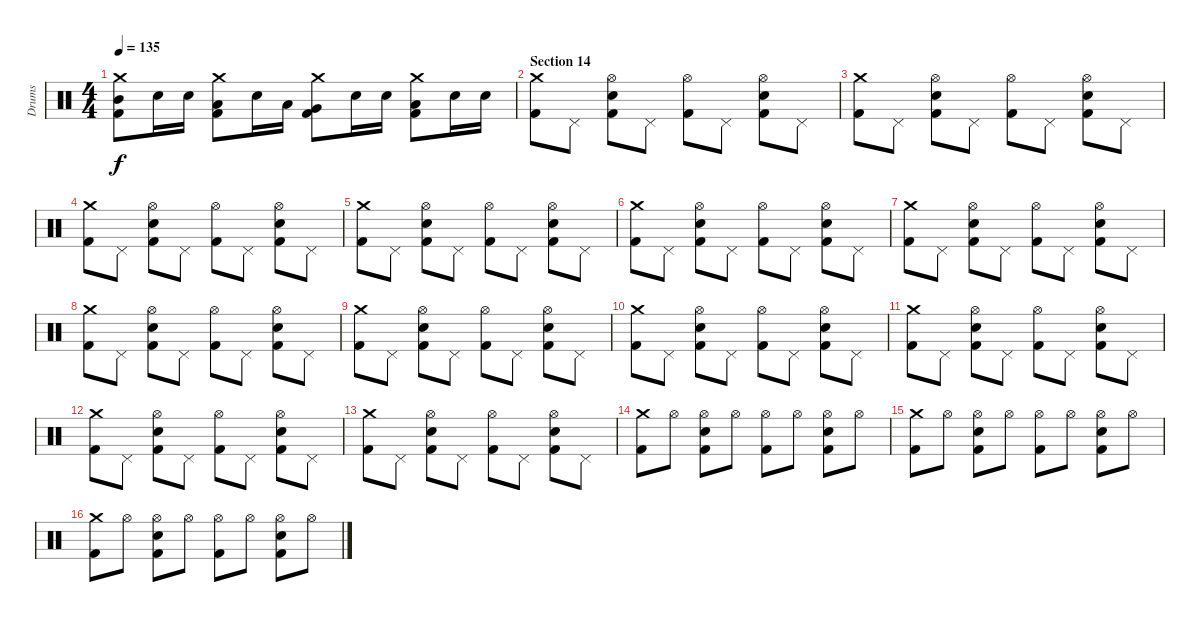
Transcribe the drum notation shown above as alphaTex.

\track ("Drums" "Drums") {instrument percussion}
\staff {score}
\articulation defaults
\ts (4 4)
\tempo 135
\clef neutral
\ks c
("Crash medium (hit)" "Kick (hit) 2" "Mid Tom (hit)").8{dy f} "Electric Snare (hit)".16 "Electric Snare (hit)".16 ("Crash medium (hit)" "Kick (hit) 2" "Low Tom (hit)").8 "Electric Snare (hit)".16 "Low Tom (hit)".16 ("Crash medium (hit)" "Kick (hit) 2" "Very Low Tom (hit)").8 "Electric Snare (hit)".16 "Electric Snare (hit)".16 ("Crash medium (hit)" "Kick (hit) 2" "Low Tom (hit)").8 "Electric Snare (hit)".16 "Electric Snare (hit)".16 |
\section ("" "Section 14")
("Crash medium (hit)" "Kick (hit) 2").8 "Pedal Hi-Hat (hit)".8 ("Hi-Hat (open)" "Electric Snare (hit)" "Kick (hit) 2").8 "Pedal Hi-Hat (hit)".8 ("Hi-Hat (open)" "Kick (hit) 2").8 "Pedal Hi-Hat (hit)".8 ("Hi-Hat (open)" "Electric Snare (hit)" "Kick (hit) 2").8 "Pedal Hi-Hat (hit)".8 |
("Crash medium (hit)" "Kick (hit) 2").8 "Pedal Hi-Hat (hit)".8 ("Hi-Hat (open)" "Electric Snare (hit)" "Kick (hit) 2").8 "Pedal Hi-Hat (hit)".8 ("Hi-Hat (open)" "Kick (hit) 2").8 "Pedal Hi-Hat (hit)".8 ("Hi-Hat (open)" "Electric Snare (hit)" "Kick (hit) 2").8 "Pedal Hi-Hat (hit)".8 |
("Crash medium (hit)" "Kick (hit) 2").8 "Pedal Hi-Hat (hit)".8 ("Hi-Hat (open)" "Electric Snare (hit)" "Kick (hit) 2").8 "Pedal Hi-Hat (hit)".8 ("Hi-Hat (open)" "Kick (hit) 2").8 "Pedal Hi-Hat (hit)".8 ("Hi-Hat (open)" "Electric Snare (hit)" "Kick (hit) 2").8 "Pedal Hi-Hat (hit)".8 |
("Crash medium (hit)" "Kick (hit) 2").8 "Pedal Hi-Hat (hit)".8 ("Hi-Hat (open)" "Electric Snare (hit)" "Kick (hit) 2").8 "Pedal Hi-Hat (hit)".8 ("Hi-Hat (open)" "Kick (hit) 2").8 "Pedal Hi-Hat (hit)".8 ("Hi-Hat (open)" "Electric Snare (hit)" "Kick (hit) 2").8 "Pedal Hi-Hat (hit)".8 |
("Crash medium (hit)" "Kick (hit) 2").8 "Pedal Hi-Hat (hit)".8 ("Hi-Hat (open)" "Electric Snare (hit)" "Kick (hit) 2").8 "Pedal Hi-Hat (hit)".8 ("Hi-Hat (open)" "Kick (hit) 2").8 "Pedal Hi-Hat (hit)".8 ("Hi-Hat (open)" "Electric Snare (hit)" "Kick (hit) 2").8 "Pedal Hi-Hat (hit)".8 |
("Crash medium (hit)" "Kick (hit) 2").8 "Pedal Hi-Hat (hit)".8 ("Hi-Hat (open)" "Electric Snare (hit)" "Kick (hit) 2").8 "Pedal Hi-Hat (hit)".8 ("Hi-Hat (open)" "Kick (hit) 2").8 "Pedal Hi-Hat (hit)".8 ("Hi-Hat (open)" "Electric Snare (hit)" "Kick (hit) 2").8 "Pedal Hi-Hat (hit)".8 |
("Crash medium (hit)" "Kick (hit) 2").8 "Pedal Hi-Hat (hit)".8 ("Hi-Hat (open)" "Electric Snare (hit)" "Kick (hit) 2").8 "Pedal Hi-Hat (hit)".8 ("Hi-Hat (open)" "Kick (hit) 2").8 "Pedal Hi-Hat (hit)".8 ("Hi-Hat (open)" "Electric Snare (hit)" "Kick (hit) 2").8 "Pedal Hi-Hat (hit)".8 |
("Crash medium (hit)" "Kick (hit) 2").8 "Pedal Hi-Hat (hit)".8 ("Hi-Hat (open)" "Electric Snare (hit)" "Kick (hit) 2").8 "Pedal Hi-Hat (hit)".8 ("Hi-Hat (open)" "Kick (hit) 2").8 "Pedal Hi-Hat (hit)".8 ("Hi-Hat (open)" "Electric Snare (hit)" "Kick (hit) 2").8 "Pedal Hi-Hat (hit)".8 |
("Crash medium (hit)" "Kick (hit) 2").8 "Pedal Hi-Hat (hit)".8 ("Hi-Hat (open)" "Electric Snare (hit)" "Kick (hit) 2").8 "Pedal Hi-Hat (hit)".8 ("Hi-Hat (open)" "Kick (hit) 2").8 "Pedal Hi-Hat (hit)".8 ("Hi-Hat (open)" "Electric Snare (hit)" "Kick (hit) 2").8 "Pedal Hi-Hat (hit)".8 |
("Crash medium (hit)" "Kick (hit) 2").8 "Pedal Hi-Hat (hit)".8 ("Hi-Hat (open)" "Electric Snare (hit)" "Kick (hit) 2").8 "Pedal Hi-Hat (hit)".8 ("Hi-Hat (open)" "Kick (hit) 2").8 "Pedal Hi-Hat (hit)".8 ("Hi-Hat (open)" "Electric Snare (hit)" "Kick (hit) 2").8 "Pedal Hi-Hat (hit)".8 |
("Crash medium (hit)" "Kick (hit) 2").8 "Pedal Hi-Hat (hit)".8 ("Hi-Hat (open)" "Electric Snare (hit)" "Kick (hit) 2").8 "Pedal Hi-Hat (hit)".8 ("Hi-Hat (open)" "Kick (hit) 2").8 "Pedal Hi-Hat (hit)".8 ("Hi-Hat (open)" "Electric Snare (hit)" "Kick (hit) 2").8 "Pedal Hi-Hat (hit)".8 |
("Crash medium (hit)" "Kick (hit) 2").8 "Pedal Hi-Hat (hit)".8 ("Hi-Hat (open)" "Electric Snare (hit)" "Kick (hit) 2").8 "Pedal Hi-Hat (hit)".8 ("Hi-Hat (open)" "Kick (hit) 2").8 "Pedal Hi-Hat (hit)".8 ("Hi-Hat (open)" "Electric Snare (hit)" "Kick (hit) 2").8 "Pedal Hi-Hat (hit)".8 |
("Crash medium (hit)" "Kick (hit) 2").8 "Hi-Hat (open)".8 ("Hi-Hat (open)" "Electric Snare (hit)" "Kick (hit) 2").8 "Hi-Hat (open)".8 ("Hi-Hat (open)" "Kick (hit) 2").8 "Hi-Hat (open)".8 ("Hi-Hat (open)" "Electric Snare (hit)" "Kick (hit) 2").8 "Hi-Hat (open)".8 |
("Crash medium (hit)" "Kick (hit) 2").8 "Hi-Hat (open)".8 ("Hi-Hat (open)" "Electric Snare (hit)" "Kick (hit) 2").8 "Hi-Hat (open)".8 ("Hi-Hat (open)" "Kick (hit) 2").8 "Hi-Hat (open)".8 ("Hi-Hat (open)" "Electric Snare (hit)" "Kick (hit) 2").8 "Hi-Hat (open)".8 |
("Crash medium (hit)" "Kick (hit) 2").8 "Hi-Hat (open)".8 ("Hi-Hat (open)" "Electric Snare (hit)" "Kick (hit) 2").8 "Hi-Hat (open)".8 ("Hi-Hat (open)" "Kick (hit) 2").8 "Hi-Hat (open)".8 ("Hi-Hat (open)" "Electric Snare (hit)" "Kick (hit) 2").8 "Hi-Hat (open)".8
